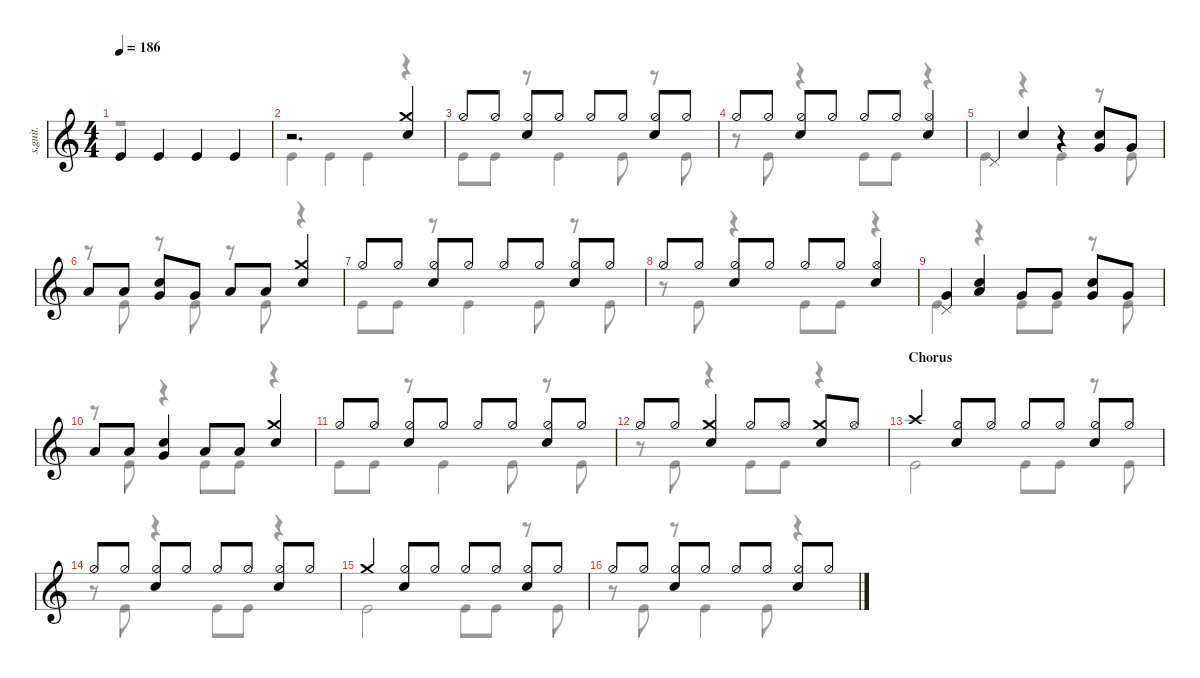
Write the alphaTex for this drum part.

\defaultSystemsLayout 4
\hideDynamics
\bracketExtendMode nobrackets
\track ("Tre Cool" "s.guit.") {instrument percussion}
\staff {score}
\articulation defaults
\voice
\ts (4 4)
\tempo 186
\clef g2
\ks c "Kick (hit)".4{dy f} "Kick (hit)".4 "Kick (hit)".4 "Kick (hit)".4
|
r.2{d} ("Snare (hit) 2" "Crash medium (hit)").4 |
"Hi-Hat (half)".8 "Hi-Hat (half)".8 ("Hi-Hat (half)" "Snare (hit) 2").8 "Hi-Hat (half)".8 "Hi-Hat (half)".8 "Hi-Hat (half)".8 ("Hi-Hat (half)" "Snare (hit) 2").8 "Hi-Hat (half)".8 |
"Hi-Hat (half)".8 "Hi-Hat (half)".8 ("Hi-Hat (half)" "Snare (hit) 2").8 "Hi-Hat (half)".8 "Hi-Hat (half)".8 "Hi-Hat (half)".8 ("Hi-Hat (open)" "Snare (hit) 2").4 |
"Pedal Hi-Hat (hit)".4 "Snare (hit) 2".4 r.4 ("Very Low Tom (hit)" "Snare (hit) 2").8 "Very Low Tom (hit)".8 |
"Low Tom (hit)".8 "Low Tom (hit)".8 ("Very Low Tom (hit)" "Snare (hit) 2").8 "Very Low Tom (hit)".8 "Low Tom (hit)".8 "Low Tom (hit)".8 ("Snare (hit) 2" "Crash medium (hit)").4 |
"Hi-Hat (half)".8 "Hi-Hat (half)".8 ("Hi-Hat (half)" "Snare (hit) 2").8 "Hi-Hat (half)".8 "Hi-Hat (half)".8 "Hi-Hat (half)".8 ("Hi-Hat (half)" "Snare (hit) 2").8 "Hi-Hat (half)".8 |
"Hi-Hat (half)".8 "Hi-Hat (half)".8 ("Hi-Hat (half)" "Snare (hit) 2").8 "Hi-Hat (half)".8 "Hi-Hat (half)".8 "Hi-Hat (half)".8 ("Snare (hit) 2" "Hi-Hat (open)").4 |
("Pedal Hi-Hat (hit)" "Very Low Tom (hit)").4 ("Snare (hit) 2" "Low Tom (hit)").4 "Very Low Tom (hit)".8 "Very Low Tom (hit)".8 ("Snare (hit) 2" "Very Low Tom (hit)").8 "Very Low Tom (hit)".8 |
"Low Tom (hit)".8 "Low Tom (hit)".8 ("Snare (hit) 2" "Very Low Tom (hit)").4 "Low Tom (hit)".8 "Low Tom (hit)".8 ("Snare (hit) 2" "Crash medium (hit)").4 |
"Hi-Hat (half)".8 "Hi-Hat (half)".8 ("Hi-Hat (half)" "Snare (hit) 2").8 "Hi-Hat (half)".8 "Hi-Hat (half)".8 "Hi-Hat (half)".8 ("Hi-Hat (half)" "Snare (hit) 2").8 "Hi-Hat (half)".8 |
"Hi-Hat (half)".8 "Hi-Hat (half)".8 ("Snare (hit) 2" "Crash medium (hit)").4 "Hi-Hat (half)".8 "Hi-Hat (open)".8 ("Snare (hit) 2" "Crash medium (hit)").8 "Hi-Hat (open)".8 |
\section ("" "Chorus")
"Crash high (hit)".4 ("Hi-Hat (half)" "Snare (hit) 2").8 "Hi-Hat (half)".8 "Hi-Hat (half)".8 "Hi-Hat (half)".8 ("Hi-Hat (half)" "Snare (hit) 2").8 "Hi-Hat (half)".8 |
"Hi-Hat (half)".8 "Hi-Hat (half)".8 ("Hi-Hat (half)" "Snare (hit) 2").8 "Hi-Hat (half)".8 "Hi-Hat (half)".8 "Hi-Hat (half)".8 ("Hi-Hat (half)" "Snare (hit) 2").8 "Hi-Hat (half)".8 |
"Crash medium (hit)".4 ("Hi-Hat (half)" "Snare (hit) 2").8 "Hi-Hat (half)".8 "Hi-Hat (half)".8 "Hi-Hat (half)".8 ("Hi-Hat (half)" "Snare (hit) 2").8 "Hi-Hat (half)".8 |
"Hi-Hat (half)".8 "Hi-Hat (half)".8 ("Hi-Hat (half)" "Snare (hit) 2").8 "Hi-Hat (half)".8 "Hi-Hat (half)".8 "Hi-Hat (half)".8 ("Hi-Hat (half)" "Snare (hit) 2").8 "Hi-Hat (half)".8
\voice
\clef g2
\ottava regular
\simile none
\ks c
r.1{dy f} |
"Kick (hit)".4 "Kick (hit)".4 "Kick (hit)".4 r.4 |
"Kick (hit)".8 "Kick (hit)".8 r.8 "Kick (hit)".4 "Kick (hit)".8 r.8 "Kick (hit)".8 |
r.8 "Kick (hit)".8 r.4 "Kick (hit)".8 "Kick (hit)".8 r.4 |
"Kick (hit)".4 r.4 "Kick (hit)".4 r.8 "Kick (hit)".8 |
r.8 "Kick (hit)".8 r.8 "Kick (hit)".8 r.8 "Kick (hit)".8 r.4 |
"Kick (hit)".8 "Kick (hit)".8 r.8 "Kick (hit)".4 "Kick (hit)".8 r.8 "Kick (hit)".8 |
r.8 "Kick (hit)".8 r.4 "Kick (hit)".8 "Kick (hit)".8 r.4 |
"Kick (hit)".4 r.4 "Kick (hit)".8 "Kick (hit)".8 r.8 "Kick (hit)".8 |
r.8 "Kick (hit)".8 r.4 "Kick (hit)".8 "Kick (hit)".8 r.4 |
"Kick (hit)".8 "Kick (hit)".8 r.8 "Kick (hit)".4 "Kick (hit)".8 r.8 "Kick (hit)".8 |
r.8 "Kick (hit)".8 r.4 "Kick (hit)".8 "Kick (hit)".8 r.4 |
"Kick (hit)".2 "Kick (hit)".8 "Kick (hit)".8 r.8 "Kick (hit)".8 |
r.8 "Kick (hit)".8 r.4 "Kick (hit)".8 "Kick (hit)".8 r.4 |
"Kick (hit)".2 "Kick (hit)".8 "Kick (hit)".8 r.8 "Kick (hit)".8 |
r.8 "Kick (hit)".8 r.8 "Kick (hit)".4 "Kick (hit)".8 r.4
